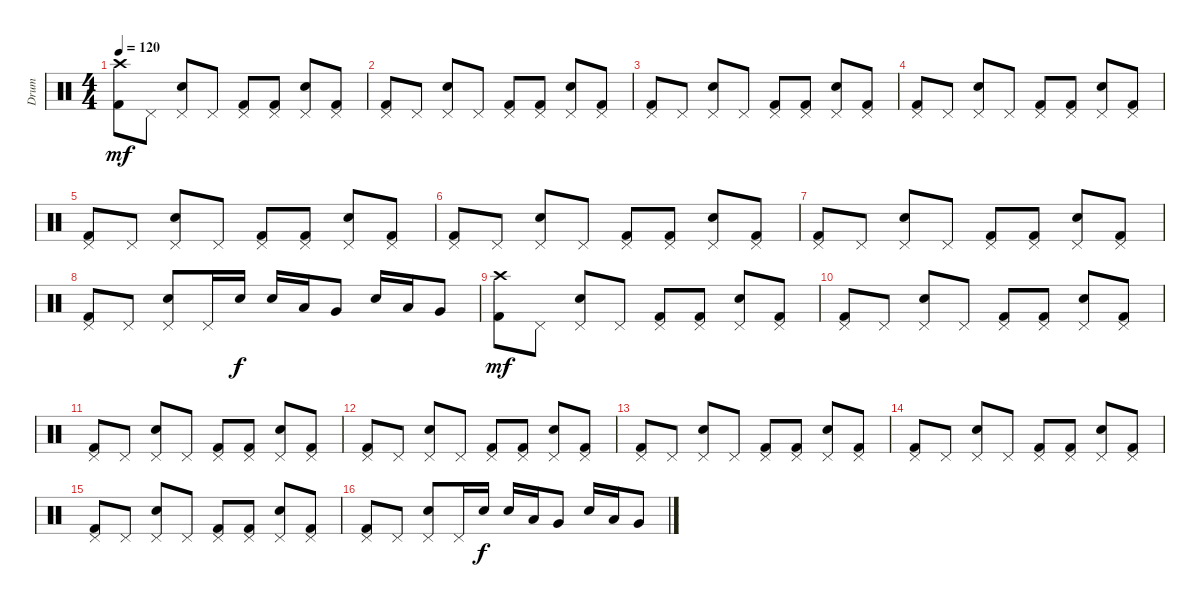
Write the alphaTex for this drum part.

\track ("Drum" "Drum") {instrument percussion}
\staff {score}
\articulation defaults
\ts (4 4)
\tempo 120
\clef neutral
\ks c
("Crash high (hit)" "Kick (hit) 2").8{dy mf} "Pedal Hi-Hat (hit)".8 ("Pedal Hi-Hat (hit)" "Electric Snare (hit)").8 "Pedal Hi-Hat (hit)".8 ("Pedal Hi-Hat (hit)" "Kick (hit) 2").8 ("Pedal Hi-Hat (hit)" "Kick (hit) 2").8 ("Pedal Hi-Hat (hit)" "Electric Snare (hit)").8 ("Pedal Hi-Hat (hit)" "Kick (hit) 2").8 |
("Pedal Hi-Hat (hit)" "Kick (hit) 2").8 "Pedal Hi-Hat (hit)".8 ("Pedal Hi-Hat (hit)" "Electric Snare (hit)").8 "Pedal Hi-Hat (hit)".8 ("Pedal Hi-Hat (hit)" "Kick (hit) 2").8 ("Pedal Hi-Hat (hit)" "Kick (hit) 2").8 ("Pedal Hi-Hat (hit)" "Electric Snare (hit)").8 ("Pedal Hi-Hat (hit)" "Kick (hit) 2").8 |
("Pedal Hi-Hat (hit)" "Kick (hit) 2").8 "Pedal Hi-Hat (hit)".8 ("Pedal Hi-Hat (hit)" "Electric Snare (hit)").8 "Pedal Hi-Hat (hit)".8 ("Pedal Hi-Hat (hit)" "Kick (hit) 2").8 ("Pedal Hi-Hat (hit)" "Kick (hit) 2").8 ("Pedal Hi-Hat (hit)" "Electric Snare (hit)").8 ("Pedal Hi-Hat (hit)" "Kick (hit) 2").8 |
("Pedal Hi-Hat (hit)" "Kick (hit) 2").8 "Pedal Hi-Hat (hit)".8 ("Pedal Hi-Hat (hit)" "Electric Snare (hit)").8 "Pedal Hi-Hat (hit)".8 ("Pedal Hi-Hat (hit)" "Kick (hit) 2").8 ("Pedal Hi-Hat (hit)" "Kick (hit) 2").8 ("Pedal Hi-Hat (hit)" "Electric Snare (hit)").8 ("Pedal Hi-Hat (hit)" "Kick (hit) 2").8 |
("Pedal Hi-Hat (hit)" "Kick (hit) 2").8 "Pedal Hi-Hat (hit)".8 ("Pedal Hi-Hat (hit)" "Electric Snare (hit)").8 "Pedal Hi-Hat (hit)".8 ("Pedal Hi-Hat (hit)" "Kick (hit) 2").8 ("Pedal Hi-Hat (hit)" "Kick (hit) 2").8 ("Pedal Hi-Hat (hit)" "Electric Snare (hit)").8 ("Pedal Hi-Hat (hit)" "Kick (hit) 2").8 |
("Pedal Hi-Hat (hit)" "Kick (hit) 2").8 "Pedal Hi-Hat (hit)".8 ("Pedal Hi-Hat (hit)" "Electric Snare (hit)").8 "Pedal Hi-Hat (hit)".8 ("Pedal Hi-Hat (hit)" "Kick (hit) 2").8 ("Pedal Hi-Hat (hit)" "Kick (hit) 2").8 ("Pedal Hi-Hat (hit)" "Electric Snare (hit)").8 ("Pedal Hi-Hat (hit)" "Kick (hit) 2").8 |
("Pedal Hi-Hat (hit)" "Kick (hit) 2").8 "Pedal Hi-Hat (hit)".8 ("Pedal Hi-Hat (hit)" "Electric Snare (hit)").8 "Pedal Hi-Hat (hit)".8 ("Pedal Hi-Hat (hit)" "Kick (hit) 2").8 ("Pedal Hi-Hat (hit)" "Kick (hit) 2").8 ("Pedal Hi-Hat (hit)" "Electric Snare (hit)").8 ("Pedal Hi-Hat (hit)" "Kick (hit) 2").8 |
("Pedal Hi-Hat (hit)" "Kick (hit) 2").8 "Pedal Hi-Hat (hit)".8 ("Pedal Hi-Hat (hit)" "Electric Snare (hit)").8 "Pedal Hi-Hat (hit)".16 "Electric Snare (hit)".16{dy f} "Electric Snare (hit)".16 "Low Tom (hit)".16 "Very Low Tom (hit)".8 "Electric Snare (hit)".16 "Low Tom (hit)".16 "Very Low Tom (hit)".8 |
("Crash high (hit)" "Kick (hit) 2").8{dy mf} "Pedal Hi-Hat (hit)".8 ("Pedal Hi-Hat (hit)" "Electric Snare (hit)").8 "Pedal Hi-Hat (hit)".8 ("Pedal Hi-Hat (hit)" "Kick (hit) 2").8 ("Pedal Hi-Hat (hit)" "Kick (hit) 2").8 ("Pedal Hi-Hat (hit)" "Electric Snare (hit)").8 ("Pedal Hi-Hat (hit)" "Kick (hit) 2").8 |
("Pedal Hi-Hat (hit)" "Kick (hit) 2").8 "Pedal Hi-Hat (hit)".8 ("Pedal Hi-Hat (hit)" "Electric Snare (hit)").8 "Pedal Hi-Hat (hit)".8 ("Pedal Hi-Hat (hit)" "Kick (hit) 2").8 ("Pedal Hi-Hat (hit)" "Kick (hit) 2").8 ("Pedal Hi-Hat (hit)" "Electric Snare (hit)").8 ("Pedal Hi-Hat (hit)" "Kick (hit) 2").8 |
("Pedal Hi-Hat (hit)" "Kick (hit) 2").8 "Pedal Hi-Hat (hit)".8 ("Pedal Hi-Hat (hit)" "Electric Snare (hit)").8 "Pedal Hi-Hat (hit)".8 ("Pedal Hi-Hat (hit)" "Kick (hit) 2").8 ("Pedal Hi-Hat (hit)" "Kick (hit) 2").8 ("Pedal Hi-Hat (hit)" "Electric Snare (hit)").8 ("Pedal Hi-Hat (hit)" "Kick (hit) 2").8 |
("Pedal Hi-Hat (hit)" "Kick (hit) 2").8 "Pedal Hi-Hat (hit)".8 ("Pedal Hi-Hat (hit)" "Electric Snare (hit)").8 "Pedal Hi-Hat (hit)".8 ("Pedal Hi-Hat (hit)" "Kick (hit) 2").8 ("Pedal Hi-Hat (hit)" "Kick (hit) 2").8 ("Pedal Hi-Hat (hit)" "Electric Snare (hit)").8 ("Pedal Hi-Hat (hit)" "Kick (hit) 2").8 |
("Pedal Hi-Hat (hit)" "Kick (hit) 2").8 "Pedal Hi-Hat (hit)".8 ("Pedal Hi-Hat (hit)" "Electric Snare (hit)").8 "Pedal Hi-Hat (hit)".8 ("Pedal Hi-Hat (hit)" "Kick (hit) 2").8 ("Pedal Hi-Hat (hit)" "Kick (hit) 2").8 ("Pedal Hi-Hat (hit)" "Electric Snare (hit)").8 ("Pedal Hi-Hat (hit)" "Kick (hit) 2").8 |
("Pedal Hi-Hat (hit)" "Kick (hit) 2").8 "Pedal Hi-Hat (hit)".8 ("Pedal Hi-Hat (hit)" "Electric Snare (hit)").8 "Pedal Hi-Hat (hit)".8 ("Pedal Hi-Hat (hit)" "Kick (hit) 2").8 ("Pedal Hi-Hat (hit)" "Kick (hit) 2").8 ("Pedal Hi-Hat (hit)" "Electric Snare (hit)").8 ("Pedal Hi-Hat (hit)" "Kick (hit) 2").8 |
("Pedal Hi-Hat (hit)" "Kick (hit) 2").8 "Pedal Hi-Hat (hit)".8 ("Pedal Hi-Hat (hit)" "Electric Snare (hit)").8 "Pedal Hi-Hat (hit)".8 ("Pedal Hi-Hat (hit)" "Kick (hit) 2").8 ("Pedal Hi-Hat (hit)" "Kick (hit) 2").8 ("Pedal Hi-Hat (hit)" "Electric Snare (hit)").8 ("Pedal Hi-Hat (hit)" "Kick (hit) 2").8 |
("Pedal Hi-Hat (hit)" "Kick (hit) 2").8 "Pedal Hi-Hat (hit)".8 ("Pedal Hi-Hat (hit)" "Electric Snare (hit)").8 "Pedal Hi-Hat (hit)".16 "Electric Snare (hit)".16{dy f} "Electric Snare (hit)".16 "Low Tom (hit)".16 "Very Low Tom (hit)".8 "Electric Snare (hit)".16 "Low Tom (hit)".16 "Very Low Tom (hit)".8
